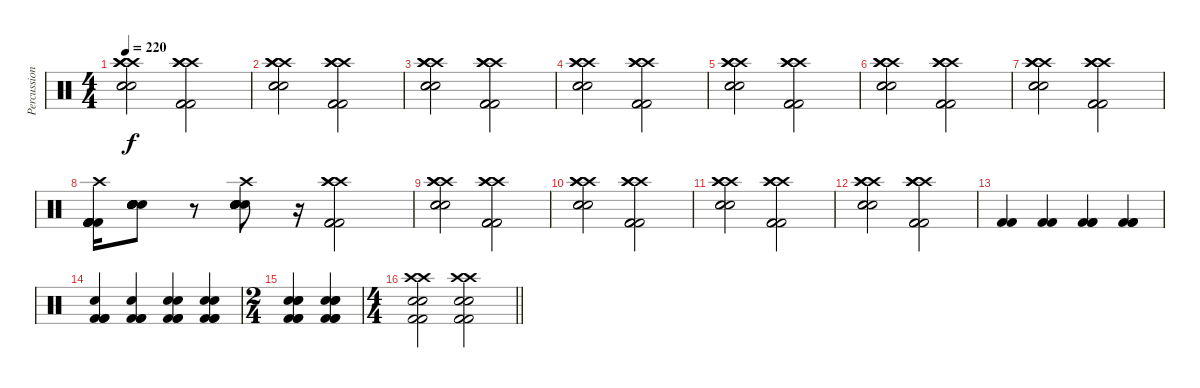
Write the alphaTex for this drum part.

\track ("Percussion" "Percussion") {instrument percussion}
\staff {score}
\articulation defaults
\ts (4 4)
\tempo 220
\clef neutral
\ks c
("Crash high (hit)" "Crash high (hit)" "Crash high (hit)" "Snare (hit) 2" "Snare (hit) 2" "Snare (hit) 2").2{dy f} ("Crash high (hit)" "Crash high (hit)" "Crash high (hit)" "Kick (hit) 2" "Kick (hit) 2" "Kick (hit) 2").2 |
("Crash high (hit)" "Crash high (hit)" "Crash high (hit)" "Snare (hit) 2" "Snare (hit) 2" "Snare (hit) 2").2 ("Crash high (hit)" "Crash high (hit)" "Crash high (hit)" "Kick (hit) 2" "Kick (hit) 2" "Kick (hit) 2").2 |
("Crash high (hit)" "Crash high (hit)" "Crash high (hit)" "Snare (hit) 2" "Snare (hit) 2" "Snare (hit) 2").2 ("Crash high (hit)" "Crash high (hit)" "Crash high (hit)" "Kick (hit) 2" "Kick (hit) 2" "Kick (hit) 2").2 |
("Crash high (hit)" "Crash high (hit)" "Crash high (hit)" "Snare (hit) 2" "Snare (hit) 2" "Snare (hit) 2").2 ("Crash high (hit)" "Crash high (hit)" "Crash high (hit)" "Kick (hit) 2" "Kick (hit) 2" "Kick (hit) 2").2 |
("Crash high (hit)" "Crash high (hit)" "Crash high (hit)" "Snare (hit) 2" "Snare (hit) 2" "Snare (hit) 2").2 ("Crash high (hit)" "Crash high (hit)" "Crash high (hit)" "Kick (hit) 2" "Kick (hit) 2" "Kick (hit) 2").2 |
("Crash high (hit)" "Crash high (hit)" "Crash high (hit)" "Snare (hit) 2" "Snare (hit) 2" "Snare (hit) 2").2 ("Crash high (hit)" "Crash high (hit)" "Crash high (hit)" "Kick (hit) 2" "Kick (hit) 2" "Kick (hit) 2").2 |
("Crash high (hit)" "Crash high (hit)" "Crash high (hit)" "Snare (hit) 2" "Snare (hit) 2" "Snare (hit) 2").2 ("Crash high (hit)" "Crash high (hit)" "Crash high (hit)" "Kick (hit) 2" "Kick (hit) 2" "Kick (hit) 2").2 |
("Crash high (hit)" "Kick (hit) 2" "Kick (hit) 2" "Kick (hit) 2" "Kick (hit) 2" "Kick (hit) 2").16 ("Snare (hit) 2" "Snare (hit) 2" "Snare (hit) 2" "Snare (hit) 2" "Snare (hit) 2" "Snare (hit) 2").8 r.8 ("Crash high (hit)" "Snare (hit) 2" "Snare (hit) 2" "Snare (hit) 2" "Snare (hit) 2" "Snare (hit) 2").8 r.16 ("Crash high (hit)" "Crash high (hit)" "Crash high (hit)" "Kick (hit) 2" "Kick (hit) 2" "Kick (hit) 2").2 |
("Crash high (hit)" "Crash high (hit)" "Crash high (hit)" "Snare (hit) 2" "Snare (hit) 2" "Snare (hit) 2").2 ("Crash high (hit)" "Crash high (hit)" "Crash high (hit)" "Kick (hit) 2" "Kick (hit) 2" "Kick (hit) 2").2 |
("Crash high (hit)" "Crash high (hit)" "Crash high (hit)" "Snare (hit) 2" "Snare (hit) 2" "Snare (hit) 2").2 ("Crash high (hit)" "Crash high (hit)" "Crash high (hit)" "Kick (hit) 2" "Kick (hit) 2" "Kick (hit) 2").2 |
("Crash high (hit)" "Crash high (hit)" "Crash high (hit)" "Snare (hit) 2" "Snare (hit) 2" "Snare (hit) 2").2 ("Crash high (hit)" "Crash high (hit)" "Crash high (hit)" "Kick (hit) 2" "Kick (hit) 2" "Kick (hit) 2").2 |
("Crash high (hit)" "Crash high (hit)" "Crash high (hit)" "Snare (hit) 2" "Snare (hit) 2" "Snare (hit) 2").2 ("Crash high (hit)" "Crash high (hit)" "Crash high (hit)" "Kick (hit) 2" "Kick (hit) 2" "Kick (hit) 2").2 |
("Kick (hit) 2" "Kick (hit) 2").4 ("Kick (hit) 2" "Kick (hit) 2").4 ("Kick (hit) 2" "Kick (hit) 2" "Kick (hit) 2").4 ("Kick (hit) 2" "Kick (hit) 2" "Kick (hit) 2").4 |
("Snare (hit) 2" "Kick (hit) 2" "Kick (hit) 2" "Kick (hit) 2").4 ("Snare (hit) 2" "Kick (hit) 2" "Kick (hit) 2" "Kick (hit) 2").4 ("Snare (hit) 2" "Snare (hit) 2" "Kick (hit) 2" "Kick (hit) 2" "Kick (hit) 2").4 ("Snare (hit) 2" "Snare (hit) 2" "Kick (hit) 2" "Kick (hit) 2" "Kick (hit) 2").4 |
\ts (2 4)
("Snare (hit) 2" "Snare (hit) 2" "Snare (hit) 2" "Kick (hit) 2" "Kick (hit) 2" "Kick (hit) 2").4 ("Snare (hit) 2" "Snare (hit) 2" "Snare (hit) 2" "Kick (hit) 2" "Kick (hit) 2" "Kick (hit) 2").4 |
\ts (4 4)
\barLineRight lightlight
("Crash high (hit)" "Crash high (hit)" "Kick (hit) 2" "Kick (hit) 2" "Snare (hit) 2" "Snare (hit) 2").2 ("Crash high (hit)" "Crash high (hit)" "Kick (hit) 2" "Kick (hit) 2" "Snare (hit) 2" "Snare (hit) 2").2
